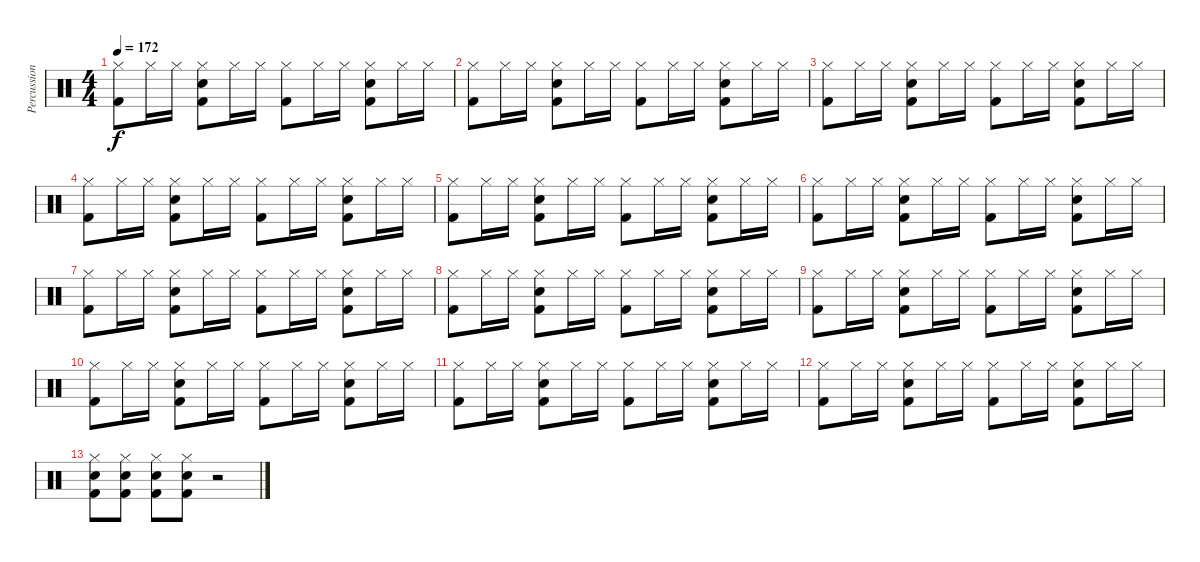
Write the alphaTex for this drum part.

\track ("Percussion" "Percussion") {instrument percussion}
\staff {score}
\articulation defaults
\ts (4 4)
\tempo 172
\clef neutral
\ks c
("Hi-Hat (closed)" "Kick (hit) 2").8{dy f} "Hi-Hat (closed)".16 "Hi-Hat (closed)".16 ("Hi-Hat (closed)" "Snare (hit) 2" "Kick (hit) 2").8 "Hi-Hat (closed)".16 "Hi-Hat (closed)".16 ("Hi-Hat (closed)" "Kick (hit) 2").8 "Hi-Hat (closed)".16 "Hi-Hat (closed)".16 ("Hi-Hat (closed)" "Snare (hit) 2" "Kick (hit) 2").8 "Hi-Hat (closed)".16 "Hi-Hat (closed)".16 |
("Hi-Hat (closed)" "Kick (hit) 2").8 "Hi-Hat (closed)".16 "Hi-Hat (closed)".16 ("Hi-Hat (closed)" "Snare (hit) 2" "Kick (hit) 2").8 "Hi-Hat (closed)".16 "Hi-Hat (closed)".16 ("Hi-Hat (closed)" "Kick (hit) 2").8 "Hi-Hat (closed)".16 "Hi-Hat (closed)".16 ("Hi-Hat (closed)" "Snare (hit) 2" "Kick (hit) 2").8 "Hi-Hat (closed)".16 "Hi-Hat (closed)".16 |
("Hi-Hat (closed)" "Kick (hit) 2").8 "Hi-Hat (closed)".16 "Hi-Hat (closed)".16 ("Hi-Hat (closed)" "Snare (hit) 2" "Kick (hit) 2").8 "Hi-Hat (closed)".16 "Hi-Hat (closed)".16 ("Hi-Hat (closed)" "Kick (hit) 2").8 "Hi-Hat (closed)".16 "Hi-Hat (closed)".16 ("Hi-Hat (closed)" "Snare (hit) 2" "Kick (hit) 2").8 "Hi-Hat (closed)".16 "Hi-Hat (closed)".16 |
("Hi-Hat (closed)" "Kick (hit) 2").8 "Hi-Hat (closed)".16 "Hi-Hat (closed)".16 ("Hi-Hat (closed)" "Snare (hit) 2" "Kick (hit) 2").8 "Hi-Hat (closed)".16 "Hi-Hat (closed)".16 ("Hi-Hat (closed)" "Kick (hit) 2").8 "Hi-Hat (closed)".16 "Hi-Hat (closed)".16 ("Hi-Hat (closed)" "Snare (hit) 2" "Kick (hit) 2").8 "Hi-Hat (closed)".16 "Hi-Hat (closed)".16 |
("Hi-Hat (closed)" "Kick (hit) 2").8 "Hi-Hat (closed)".16 "Hi-Hat (closed)".16 ("Hi-Hat (closed)" "Snare (hit) 2" "Kick (hit) 2").8 "Hi-Hat (closed)".16 "Hi-Hat (closed)".16 ("Hi-Hat (closed)" "Kick (hit) 2").8 "Hi-Hat (closed)".16 "Hi-Hat (closed)".16 ("Hi-Hat (closed)" "Snare (hit) 2" "Kick (hit) 2").8 "Hi-Hat (closed)".16 "Hi-Hat (closed)".16 |
("Hi-Hat (closed)" "Kick (hit) 2").8 "Hi-Hat (closed)".16 "Hi-Hat (closed)".16 ("Hi-Hat (closed)" "Snare (hit) 2" "Kick (hit) 2").8 "Hi-Hat (closed)".16 "Hi-Hat (closed)".16 ("Hi-Hat (closed)" "Kick (hit) 2").8 "Hi-Hat (closed)".16 "Hi-Hat (closed)".16 ("Hi-Hat (closed)" "Snare (hit) 2" "Kick (hit) 2").8 "Hi-Hat (closed)".16 "Hi-Hat (closed)".16 |
("Hi-Hat (closed)" "Kick (hit) 2").8 "Hi-Hat (closed)".16 "Hi-Hat (closed)".16 ("Hi-Hat (closed)" "Snare (hit) 2" "Kick (hit) 2").8 "Hi-Hat (closed)".16 "Hi-Hat (closed)".16 ("Hi-Hat (closed)" "Kick (hit) 2").8 "Hi-Hat (closed)".16 "Hi-Hat (closed)".16 ("Hi-Hat (closed)" "Snare (hit) 2" "Kick (hit) 2").8 "Hi-Hat (closed)".16 "Hi-Hat (closed)".16 |
("Hi-Hat (closed)" "Kick (hit) 2").8 "Hi-Hat (closed)".16 "Hi-Hat (closed)".16 ("Hi-Hat (closed)" "Snare (hit) 2" "Kick (hit) 2").8 "Hi-Hat (closed)".16 "Hi-Hat (closed)".16 ("Hi-Hat (closed)" "Kick (hit) 2").8 "Hi-Hat (closed)".16 "Hi-Hat (closed)".16 ("Hi-Hat (closed)" "Snare (hit) 2" "Kick (hit) 2").8 "Hi-Hat (closed)".16 "Hi-Hat (closed)".16 |
("Hi-Hat (closed)" "Kick (hit) 2").8 "Hi-Hat (closed)".16 "Hi-Hat (closed)".16 ("Hi-Hat (closed)" "Snare (hit) 2" "Kick (hit) 2").8 "Hi-Hat (closed)".16 "Hi-Hat (closed)".16 ("Hi-Hat (closed)" "Kick (hit) 2").8 "Hi-Hat (closed)".16 "Hi-Hat (closed)".16 ("Hi-Hat (closed)" "Snare (hit) 2" "Kick (hit) 2").8 "Hi-Hat (closed)".16 "Hi-Hat (closed)".16 |
("Hi-Hat (closed)" "Kick (hit) 2").8 "Hi-Hat (closed)".16 "Hi-Hat (closed)".16 ("Hi-Hat (closed)" "Snare (hit) 2" "Kick (hit) 2").8 "Hi-Hat (closed)".16 "Hi-Hat (closed)".16 ("Hi-Hat (closed)" "Kick (hit) 2").8 "Hi-Hat (closed)".16 "Hi-Hat (closed)".16 ("Hi-Hat (closed)" "Snare (hit) 2" "Kick (hit) 2").8 "Hi-Hat (closed)".16 "Hi-Hat (closed)".16 |
("Hi-Hat (closed)" "Kick (hit) 2").8 "Hi-Hat (closed)".16 "Hi-Hat (closed)".16 ("Hi-Hat (closed)" "Snare (hit) 2" "Kick (hit) 2").8 "Hi-Hat (closed)".16 "Hi-Hat (closed)".16 ("Hi-Hat (closed)" "Kick (hit) 2").8 "Hi-Hat (closed)".16 "Hi-Hat (closed)".16 ("Hi-Hat (closed)" "Snare (hit) 2" "Kick (hit) 2").8 "Hi-Hat (closed)".16 "Hi-Hat (closed)".16 |
("Hi-Hat (closed)" "Kick (hit) 2").8 "Hi-Hat (closed)".16 "Hi-Hat (closed)".16 ("Hi-Hat (closed)" "Snare (hit) 2" "Kick (hit) 2").8 "Hi-Hat (closed)".16 "Hi-Hat (closed)".16 ("Hi-Hat (closed)" "Kick (hit) 2").8 "Hi-Hat (closed)".16 "Hi-Hat (closed)".16 ("Hi-Hat (closed)" "Snare (hit) 2" "Kick (hit) 2").8 "Hi-Hat (closed)".16 "Hi-Hat (closed)".16 |
("Hi-Hat (closed)" "Snare (hit) 2" "Kick (hit) 2").8 ("Hi-Hat (closed)" "Snare (hit) 2" "Kick (hit) 2").8 ("Hi-Hat (closed)" "Snare (hit) 2" "Kick (hit) 2").8 ("Hi-Hat (closed)" "Snare (hit) 2" "Kick (hit) 2").8 r.2
